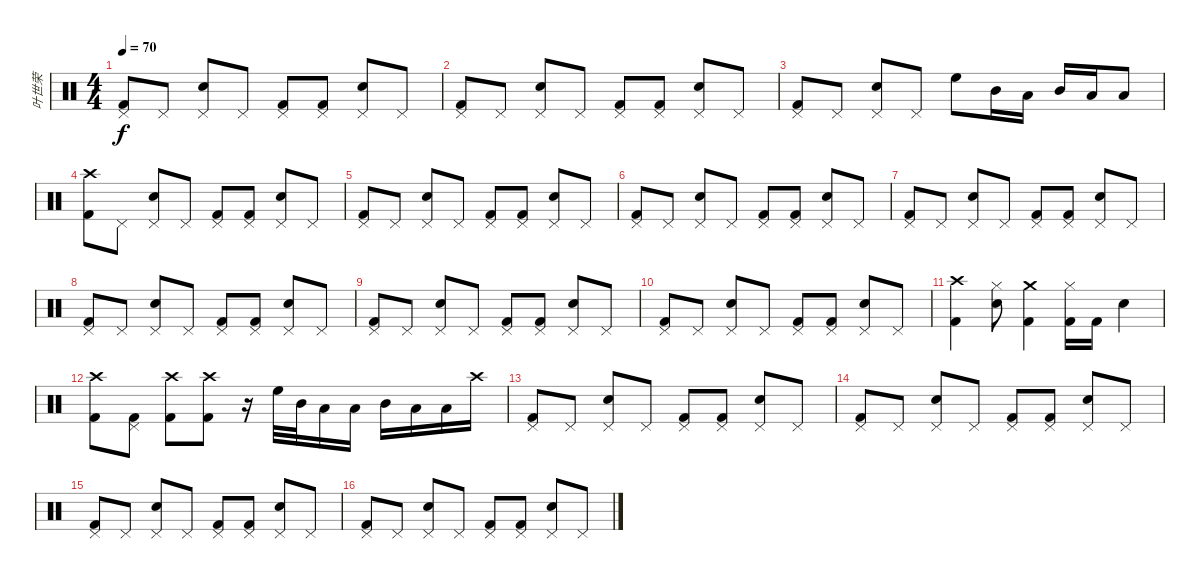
\track ("叶世荣" "叶世荣") {instrument percussion}
\staff {score}
\articulation defaults
\ts (4 4)
\tempo 70
\clef neutral
\ks c
("Pedal Hi-Hat (hit)" "Kick (hit) 2").8{dy f} "Pedal Hi-Hat (hit)".8 ("Pedal Hi-Hat (hit)" "Snare (hit) 2").8 "Pedal Hi-Hat (hit)".8 ("Pedal Hi-Hat (hit)" "Kick (hit) 2").8 ("Pedal Hi-Hat (hit)" "Kick (hit) 2").8 ("Pedal Hi-Hat (hit)" "Snare (hit) 2").8 "Pedal Hi-Hat (hit)".8 |
("Pedal Hi-Hat (hit)" "Kick (hit) 2").8 "Pedal Hi-Hat (hit)".8 ("Pedal Hi-Hat (hit)" "Snare (hit) 2").8 "Pedal Hi-Hat (hit)".8 ("Pedal Hi-Hat (hit)" "Kick (hit) 2").8 ("Pedal Hi-Hat (hit)" "Kick (hit) 2").8 ("Pedal Hi-Hat (hit)" "Snare (hit) 2").8 "Pedal Hi-Hat (hit)".8 |
("Pedal Hi-Hat (hit)" "Kick (hit) 2").8 "Pedal Hi-Hat (hit)".8 ("Pedal Hi-Hat (hit)" "Snare (hit) 2").8 "Pedal Hi-Hat (hit)".8 "High Floor Tom (hit)".8 "Mid Tom (hit)".16 "Low Tom (hit)".16 "Mid Tom (hit)".16 "Low Tom (hit)".16 "Low Floor Tom (hit)".8 |
("Crash high (hit)" "Kick (hit) 2").8 "Pedal Hi-Hat (hit)".8 ("Pedal Hi-Hat (hit)" "Snare (hit) 2").8 "Pedal Hi-Hat (hit)".8 ("Pedal Hi-Hat (hit)" "Kick (hit) 2").8 ("Pedal Hi-Hat (hit)" "Kick (hit) 2").8 ("Pedal Hi-Hat (hit)" "Snare (hit) 2").8 "Pedal Hi-Hat (hit)".8 |
("Pedal Hi-Hat (hit)" "Kick (hit) 2").8 "Pedal Hi-Hat (hit)".8 ("Pedal Hi-Hat (hit)" "Snare (hit) 2").8 "Pedal Hi-Hat (hit)".8 ("Pedal Hi-Hat (hit)" "Kick (hit) 2").8 ("Pedal Hi-Hat (hit)" "Kick (hit) 2").8 ("Pedal Hi-Hat (hit)" "Snare (hit) 2").8 "Pedal Hi-Hat (hit)".8 |
("Pedal Hi-Hat (hit)" "Kick (hit) 2").8 "Pedal Hi-Hat (hit)".8 ("Pedal Hi-Hat (hit)" "Snare (hit) 2").8 "Pedal Hi-Hat (hit)".8 ("Pedal Hi-Hat (hit)" "Kick (hit) 2").8 ("Pedal Hi-Hat (hit)" "Kick (hit) 2").8 ("Pedal Hi-Hat (hit)" "Snare (hit) 2").8 "Pedal Hi-Hat (hit)".8 |
("Pedal Hi-Hat (hit)" "Kick (hit) 2").8 "Pedal Hi-Hat (hit)".8 ("Pedal Hi-Hat (hit)" "Snare (hit) 2").8 "Pedal Hi-Hat (hit)".8 ("Pedal Hi-Hat (hit)" "Kick (hit) 2").8 ("Pedal Hi-Hat (hit)" "Kick (hit) 2").8 ("Pedal Hi-Hat (hit)" "Snare (hit) 2").8 "Pedal Hi-Hat (hit)".8 |
("Pedal Hi-Hat (hit)" "Kick (hit) 2").8 "Pedal Hi-Hat (hit)".8 ("Pedal Hi-Hat (hit)" "Snare (hit) 2").8 "Pedal Hi-Hat (hit)".8 ("Pedal Hi-Hat (hit)" "Kick (hit) 2").8 ("Pedal Hi-Hat (hit)" "Kick (hit) 2").8 ("Pedal Hi-Hat (hit)" "Snare (hit) 2").8 "Pedal Hi-Hat (hit)".8 |
("Pedal Hi-Hat (hit)" "Kick (hit) 2").8 "Pedal Hi-Hat (hit)".8 ("Pedal Hi-Hat (hit)" "Snare (hit) 2").8 "Pedal Hi-Hat (hit)".8 ("Pedal Hi-Hat (hit)" "Kick (hit) 2").8 ("Pedal Hi-Hat (hit)" "Kick (hit) 2").8 ("Pedal Hi-Hat (hit)" "Snare (hit) 2").8 "Pedal Hi-Hat (hit)".8 |
("Pedal Hi-Hat (hit)" "Kick (hit) 2").8 "Pedal Hi-Hat (hit)".8 ("Pedal Hi-Hat (hit)" "Snare (hit) 2").8 "Pedal Hi-Hat (hit)".8 ("Pedal Hi-Hat (hit)" "Kick (hit) 2").8 ("Pedal Hi-Hat (hit)" "Kick (hit) 2").8 ("Pedal Hi-Hat (hit)" "Snare (hit) 2").8 "Pedal Hi-Hat (hit)".8 |
("Crash high (hit)" "Kick (hit) 2").4 ("Hi-Hat (closed)" "Electric Snare (hit)").8 ("Crash medium (hit)" "Kick (hit) 2").4 ("Hi-Hat (closed)" "Kick (hit) 2").16 "Kick (hit) 2".16 "Electric Snare (hit)".4 |
("Crash high (hit)" "Kick (hit) 2").8 ("Pedal Hi-Hat (hit)" "Kick (hit) 2").8 ("Crash high (hit)" "Kick (hit) 2").8 ("Crash high (hit)" "Kick (hit) 2").8 r.16 "High Floor Tom (hit)".32 "Mid Tom (hit)".32 "Low Tom (hit)".16 "Low Tom (hit)".16 "Mid Tom (hit)".16 "Low Tom (hit)".16 "Low Floor Tom (hit)".16 "Crash high (hit)".16 |
("Pedal Hi-Hat (hit)" "Kick (hit) 2").8{volume 13} "Pedal Hi-Hat (hit)".8 ("Pedal Hi-Hat (hit)" "Snare (hit) 2").8 "Pedal Hi-Hat (hit)".8 ("Pedal Hi-Hat (hit)" "Kick (hit) 2").8 ("Pedal Hi-Hat (hit)" "Kick (hit) 2").8 ("Pedal Hi-Hat (hit)" "Snare (hit) 2").8 "Pedal Hi-Hat (hit)".8 |
("Pedal Hi-Hat (hit)" "Kick (hit) 2").8{volume 11} "Pedal Hi-Hat (hit)".8 ("Pedal Hi-Hat (hit)" "Snare (hit) 2").8 "Pedal Hi-Hat (hit)".8 ("Pedal Hi-Hat (hit)" "Kick (hit) 2").8 ("Pedal Hi-Hat (hit)" "Kick (hit) 2").8 ("Pedal Hi-Hat (hit)" "Snare (hit) 2").8 "Pedal Hi-Hat (hit)".8 |
("Pedal Hi-Hat (hit)" "Kick (hit) 2").8{volume 9} "Pedal Hi-Hat (hit)".8 ("Pedal Hi-Hat (hit)" "Snare (hit) 2").8 "Pedal Hi-Hat (hit)".8 ("Pedal Hi-Hat (hit)" "Kick (hit) 2").8 ("Pedal Hi-Hat (hit)" "Kick (hit) 2").8 ("Pedal Hi-Hat (hit)" "Snare (hit) 2").8 "Pedal Hi-Hat (hit)".8 |
("Pedal Hi-Hat (hit)" "Kick (hit) 2").8{volume 7} "Pedal Hi-Hat (hit)".8 ("Pedal Hi-Hat (hit)" "Snare (hit) 2").8 "Pedal Hi-Hat (hit)".8 ("Pedal Hi-Hat (hit)" "Kick (hit) 2").8 ("Pedal Hi-Hat (hit)" "Kick (hit) 2").8 ("Pedal Hi-Hat (hit)" "Snare (hit) 2").8 "Pedal Hi-Hat (hit)".8
